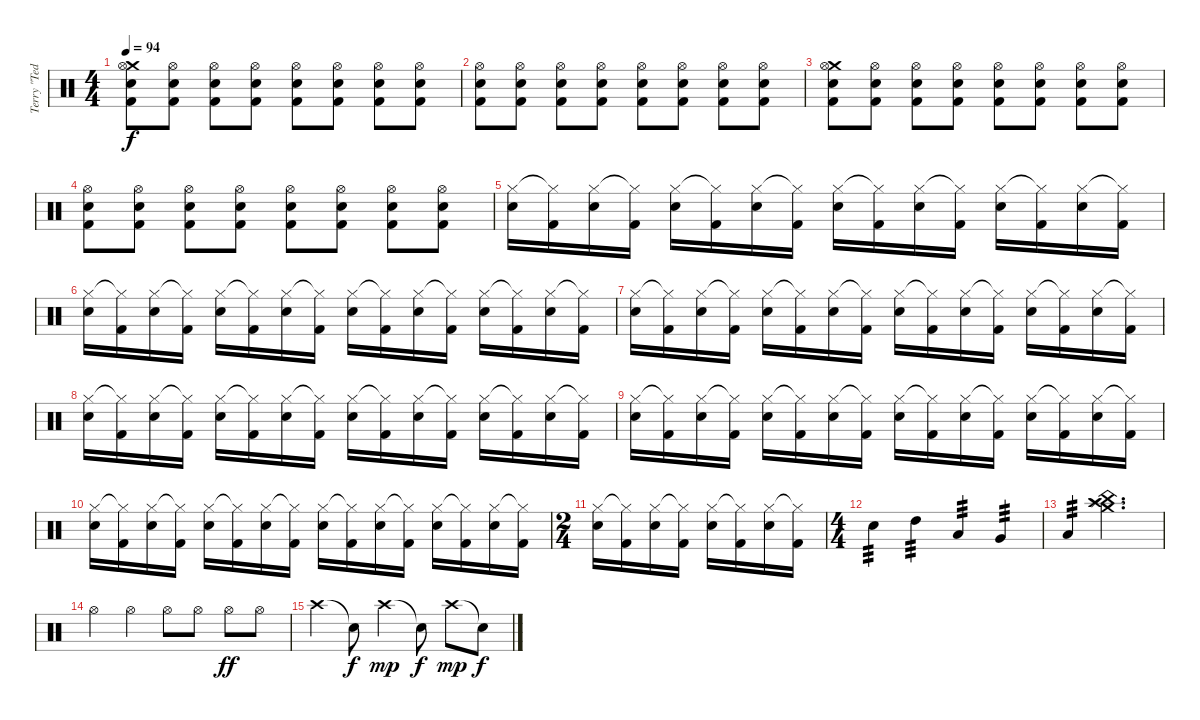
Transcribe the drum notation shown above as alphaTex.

\track ("Terry \"Ted\" Bozzio" "Terry \"Ted") {instrument percussion}
\staff {score}
\articulation defaults
\ts (4 4)
\tempo 94
\clef neutral
\ks c
("Crash medium (hit)" "Hi-Hat (open)" "Electric Snare (hit)" "Kick (hit) 2").8{dy f} ("Hi-Hat (open)" "Electric Snare (hit)" "Kick (hit) 2").8 ("Hi-Hat (open)" "Electric Snare (hit)" "Kick (hit) 2").8 ("Hi-Hat (open)" "Electric Snare (hit)" "Kick (hit) 2").8 ("Hi-Hat (open)" "Electric Snare (hit)" "Kick (hit) 2").8 ("Hi-Hat (open)" "Electric Snare (hit)" "Kick (hit) 2").8 ("Hi-Hat (open)" "Electric Snare (hit)" "Kick (hit) 2").8 ("Hi-Hat (open)" "Electric Snare (hit)" "Kick (hit) 2").8 |
("Hi-Hat (open)" "Electric Snare (hit)" "Kick (hit) 2").8 ("Hi-Hat (open)" "Electric Snare (hit)" "Kick (hit) 2").8 ("Hi-Hat (open)" "Electric Snare (hit)" "Kick (hit) 2").8 ("Hi-Hat (open)" "Electric Snare (hit)" "Kick (hit) 2").8 ("Hi-Hat (open)" "Electric Snare (hit)" "Kick (hit) 2").8 ("Hi-Hat (open)" "Electric Snare (hit)" "Kick (hit) 2").8 ("Hi-Hat (open)" "Electric Snare (hit)" "Kick (hit) 2").8 ("Hi-Hat (open)" "Electric Snare (hit)" "Kick (hit) 2").8 |
("Crash medium (hit)" "Hi-Hat (open)" "Electric Snare (hit)" "Kick (hit) 2").8 ("Hi-Hat (open)" "Electric Snare (hit)" "Kick (hit) 2").8 ("Hi-Hat (open)" "Electric Snare (hit)" "Kick (hit) 2").8 ("Hi-Hat (open)" "Electric Snare (hit)" "Kick (hit) 2").8 ("Hi-Hat (open)" "Electric Snare (hit)" "Kick (hit) 2").8 ("Hi-Hat (open)" "Electric Snare (hit)" "Kick (hit) 2").8 ("Hi-Hat (open)" "Electric Snare (hit)" "Kick (hit) 2").8 ("Hi-Hat (open)" "Electric Snare (hit)" "Kick (hit) 2").8 |
("Hi-Hat (open)" "Electric Snare (hit)" "Kick (hit) 2").8 ("Hi-Hat (open)" "Electric Snare (hit)" "Kick (hit) 2").8 ("Hi-Hat (open)" "Electric Snare (hit)" "Kick (hit) 2").8 ("Hi-Hat (open)" "Electric Snare (hit)" "Kick (hit) 2").8 ("Hi-Hat (open)" "Electric Snare (hit)" "Kick (hit) 2").8 ("Hi-Hat (open)" "Electric Snare (hit)" "Kick (hit) 2").8 ("Hi-Hat (open)" "Electric Snare (hit)" "Kick (hit) 2").8 ("Hi-Hat (open)" "Electric Snare (hit)" "Kick (hit) 2").8 |
("Hi-Hat (closed)" "Electric Snare (hit)").16 ("Hi-Hat (closed)"{t} "Kick (hit) 2").16 ("Hi-Hat (closed)" "Electric Snare (hit)").16 ("Hi-Hat (closed)"{t} "Kick (hit) 2").16 ("Hi-Hat (closed)" "Electric Snare (hit)").16 ("Hi-Hat (closed)"{t} "Kick (hit) 2").16 ("Hi-Hat (closed)" "Electric Snare (hit)").16 ("Hi-Hat (closed)"{t} "Kick (hit) 2").16 ("Hi-Hat (closed)" "Electric Snare (hit)").16 ("Hi-Hat (closed)"{t} "Kick (hit) 2").16 ("Hi-Hat (closed)" "Electric Snare (hit)").16 ("Hi-Hat (closed)"{t} "Kick (hit) 2").16 ("Hi-Hat (closed)" "Electric Snare (hit)").16 ("Hi-Hat (closed)"{t} "Kick (hit) 2").16 ("Hi-Hat (closed)" "Electric Snare (hit)").16 ("Hi-Hat (closed)"{t} "Kick (hit) 2").16 |
("Hi-Hat (closed)" "Electric Snare (hit)").16 ("Hi-Hat (closed)"{t} "Kick (hit) 2").16 ("Hi-Hat (closed)" "Electric Snare (hit)").16 ("Hi-Hat (closed)"{t} "Kick (hit) 2").16 ("Hi-Hat (closed)" "Electric Snare (hit)").16 ("Hi-Hat (closed)"{t} "Kick (hit) 2").16 ("Hi-Hat (closed)" "Electric Snare (hit)").16 ("Hi-Hat (closed)"{t} "Kick (hit) 2").16 ("Hi-Hat (closed)" "Electric Snare (hit)").16 ("Hi-Hat (closed)"{t} "Kick (hit) 2").16 ("Hi-Hat (closed)" "Electric Snare (hit)").16 ("Hi-Hat (closed)"{t} "Kick (hit) 2").16 ("Hi-Hat (closed)" "Electric Snare (hit)").16 ("Hi-Hat (closed)"{t} "Kick (hit) 2").16 ("Hi-Hat (closed)" "Electric Snare (hit)").16 ("Hi-Hat (closed)"{t} "Kick (hit) 2").16 |
("Hi-Hat (closed)" "Electric Snare (hit)").16 ("Hi-Hat (closed)"{t} "Kick (hit) 2").16 ("Hi-Hat (closed)" "Electric Snare (hit)").16 ("Hi-Hat (closed)"{t} "Kick (hit) 2").16 ("Hi-Hat (closed)" "Electric Snare (hit)").16 ("Hi-Hat (closed)"{t} "Kick (hit) 2").16 ("Hi-Hat (closed)" "Electric Snare (hit)").16 ("Hi-Hat (closed)"{t} "Kick (hit) 2").16 ("Hi-Hat (closed)" "Electric Snare (hit)").16 ("Hi-Hat (closed)"{t} "Kick (hit) 2").16 ("Hi-Hat (closed)" "Electric Snare (hit)").16 ("Hi-Hat (closed)"{t} "Kick (hit) 2").16 ("Hi-Hat (closed)" "Electric Snare (hit)").16 ("Hi-Hat (closed)"{t} "Kick (hit) 2").16 ("Hi-Hat (closed)" "Electric Snare (hit)").16 ("Hi-Hat (closed)"{t} "Kick (hit) 2").16 |
("Hi-Hat (closed)" "Electric Snare (hit)").16 ("Hi-Hat (closed)"{t} "Kick (hit) 2").16 ("Hi-Hat (closed)" "Electric Snare (hit)").16 ("Hi-Hat (closed)"{t} "Kick (hit) 2").16 ("Hi-Hat (closed)" "Electric Snare (hit)").16 ("Hi-Hat (closed)"{t} "Kick (hit) 2").16 ("Hi-Hat (closed)" "Electric Snare (hit)").16 ("Hi-Hat (closed)"{t} "Kick (hit) 2").16 ("Hi-Hat (closed)" "Electric Snare (hit)").16 ("Hi-Hat (closed)"{t} "Kick (hit) 2").16 ("Hi-Hat (closed)" "Electric Snare (hit)").16 ("Hi-Hat (closed)"{t} "Kick (hit) 2").16 ("Hi-Hat (closed)" "Electric Snare (hit)").16 ("Hi-Hat (closed)"{t} "Kick (hit) 2").16 ("Hi-Hat (closed)" "Electric Snare (hit)").16 ("Hi-Hat (closed)"{t} "Kick (hit) 2").16 |
("Hi-Hat (closed)" "Electric Snare (hit)").16 ("Hi-Hat (closed)"{t} "Kick (hit) 2").16 ("Hi-Hat (closed)" "Electric Snare (hit)").16 ("Hi-Hat (closed)"{t} "Kick (hit) 2").16 ("Hi-Hat (closed)" "Electric Snare (hit)").16 ("Hi-Hat (closed)"{t} "Kick (hit) 2").16 ("Hi-Hat (closed)" "Electric Snare (hit)").16 ("Hi-Hat (closed)"{t} "Kick (hit) 2").16 ("Hi-Hat (closed)" "Electric Snare (hit)").16 ("Hi-Hat (closed)"{t} "Kick (hit) 2").16 ("Hi-Hat (closed)" "Electric Snare (hit)").16 ("Hi-Hat (closed)"{t} "Kick (hit) 2").16 ("Hi-Hat (closed)" "Electric Snare (hit)").16 ("Hi-Hat (closed)"{t} "Kick (hit) 2").16 ("Hi-Hat (closed)" "Electric Snare (hit)").16 ("Hi-Hat (closed)"{t} "Kick (hit) 2").16 |
("Hi-Hat (closed)" "Electric Snare (hit)").16 ("Hi-Hat (closed)"{t} "Kick (hit) 2").16 ("Hi-Hat (closed)" "Electric Snare (hit)").16 ("Hi-Hat (closed)"{t} "Kick (hit) 2").16 ("Hi-Hat (closed)" "Electric Snare (hit)").16 ("Hi-Hat (closed)"{t} "Kick (hit) 2").16 ("Hi-Hat (closed)" "Electric Snare (hit)").16 ("Hi-Hat (closed)"{t} "Kick (hit) 2").16 ("Hi-Hat (closed)" "Electric Snare (hit)").16 ("Hi-Hat (closed)"{t} "Kick (hit) 2").16 ("Hi-Hat (closed)" "Electric Snare (hit)").16 ("Hi-Hat (closed)"{t} "Kick (hit) 2").16 ("Hi-Hat (closed)" "Electric Snare (hit)").16 ("Hi-Hat (closed)"{t} "Kick (hit) 2").16 ("Hi-Hat (closed)" "Electric Snare (hit)").16 ("Hi-Hat (closed)"{t} "Kick (hit) 2").16 |
\ts (2 4)
("Hi-Hat (closed)" "Electric Snare (hit)").16 ("Hi-Hat (closed)"{t} "Kick (hit) 2").16 ("Hi-Hat (closed)" "Electric Snare (hit)").16 ("Hi-Hat (closed)"{t} "Kick (hit) 2").16 ("Hi-Hat (closed)" "Electric Snare (hit)").16 ("Hi-Hat (closed)"{t} "Kick (hit) 2").16 ("Hi-Hat (closed)" "Electric Snare (hit)").16 ("Hi-Hat (closed)"{t} "Kick (hit) 2").16 |
\ts (4 4)
"Electric Snare (hit)".4{tp 3} "High Tom (hit)".4{tp 3} "Low Tom (hit)".4{tp 3} "Very Low Tom (hit)".4{tp 3} |
"Low Floor Tom (hit)".4{tp 3} ("Crash medium (hit)" "Crash high (hit)" "China (hit)" "Splash (hit)").2{d} |
"Hi-Hat (open)".4 "Hi-Hat (open)".4 "Hi-Hat (open)".8 "Hi-Hat (open)".8 "Hi-Hat (open)".8{dy ff} "Hi-Hat (open)".8 |
"Crash high (hit)".4 "Snare (hit)"{t}.8{dy f} "Crash high (hit)".4{dy mp} "Snare (hit)"{t}.8{dy f} "Crash high (hit)".8{dy mp} "Snare (hit)"{t}.8{dy f}
